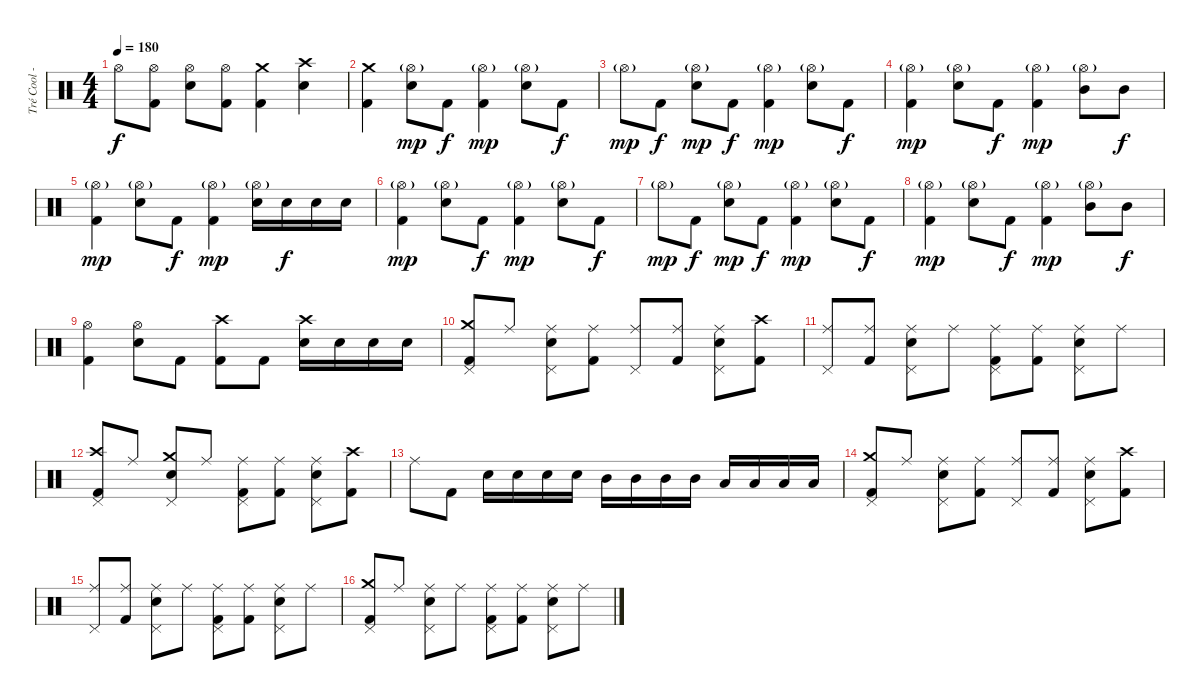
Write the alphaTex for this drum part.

\track ("Tré Cool - Drums" "Tré Cool -") {instrument percussion}
\staff {score}
\articulation defaults
\ts (4 4)
\tempo 180
\clef neutral
\ks c "Hi-Hat (open)".8{dy f}
("Hi-Hat (open)" "Kick (hit) 2").8 ("Hi-Hat (open)" "Electric Snare (hit)").8 ("Hi-Hat (open)" "Kick (hit) 2").8 ("Crash medium (hit)" "Kick (hit) 2").4 ("Crash high (hit)" "Electric Snare (hit)").4 |
("Crash medium (hit)" "Kick (hit) 2").4 ("Hi-Hat (open)"{g} "Electric Snare (hit)").8{dy mp} "Kick (hit) 2".8{dy f} ("Hi-Hat (open)"{g} "Kick (hit) 2").4{dy mp} ("Hi-Hat (open)"{g} "Electric Snare (hit)").8 "Kick (hit) 2".8{dy f} |
"Hi-Hat (open)"{g}.8{dy mp} "Kick (hit) 2".8{dy f} ("Hi-Hat (open)"{g} "Electric Snare (hit)").8{dy mp} "Kick (hit) 2".8{dy f} ("Hi-Hat (open)"{g} "Kick (hit) 2").4{dy mp} ("Hi-Hat (open)"{g} "Electric Snare (hit)").8 "Kick (hit) 2".8{dy f} |
("Hi-Hat (open)"{g} "Kick (hit) 2").4{dy mp} ("Hi-Hat (open)"{g} "Electric Snare (hit)").8 "Kick (hit) 2".8{dy f} ("Hi-Hat (open)"{g} "Kick (hit) 2").4{dy mp} ("Hi-Hat (open)"{g} "Mid Tom (hit)").8 "Mid Tom (hit)".8{dy f} |
("Hi-Hat (open)"{g} "Kick (hit) 2").4{dy mp} ("Hi-Hat (open)"{g} "Electric Snare (hit)").8 "Kick (hit) 2".8{dy f} ("Hi-Hat (open)"{g} "Kick (hit) 2").4{dy mp} ("Hi-Hat (open)"{g} "Electric Snare (hit)").16 "Electric Snare (hit)".16{dy f} "Electric Snare (hit)".16 "Electric Snare (hit)".16 |
("Hi-Hat (open)"{g} "Kick (hit) 2").4{dy mp} ("Hi-Hat (open)"{g} "Electric Snare (hit)").8 "Kick (hit) 2".8{dy f} ("Hi-Hat (open)"{g} "Kick (hit) 2").4{dy mp} ("Hi-Hat (open)"{g} "Electric Snare (hit)").8 "Kick (hit) 2".8{dy f} |
"Hi-Hat (open)"{g}.8{dy mp} "Kick (hit) 2".8{dy f} ("Hi-Hat (open)"{g} "Electric Snare (hit)").8{dy mp} "Kick (hit) 2".8{dy f} ("Hi-Hat (open)"{g} "Kick (hit) 2").4{dy mp} ("Hi-Hat (open)"{g} "Electric Snare (hit)").8 "Kick (hit) 2".8{dy f} |
("Hi-Hat (open)"{g} "Kick (hit) 2").4{dy mp} ("Hi-Hat (open)"{g} "Electric Snare (hit)").8 "Kick (hit) 2".8{dy f} ("Hi-Hat (open)"{g} "Kick (hit) 2").4{dy mp} ("Hi-Hat (open)"{g} "Mid Tom (hit)").8 "Mid Tom (hit)".8{dy f} |
("Hi-Hat (open)" "Kick (hit) 2").4 ("Hi-Hat (open)" "Electric Snare (hit)").8 "Kick (hit) 2".8 ("Crash high (hit)" "Kick (hit) 2").8 "Kick (hit) 2".8 ("Crash high (hit)" "Electric Snare (hit)").16 "Electric Snare (hit)".16 "Electric Snare (hit)".16 "Electric Snare (hit)".16 |
("Crash medium (hit)" "Pedal Hi-Hat (hit)" "Kick (hit) 2").8 "Ride (middle)".8 ("Ride (middle)" "Pedal Hi-Hat (hit)" "Electric Snare (hit)").8 ("Ride (middle)" "Kick (hit) 2").8 ("Ride (middle)" "Pedal Hi-Hat (hit)").8 ("Ride (middle)" "Kick (hit) 2").8 ("Ride (middle)" "Pedal Hi-Hat (hit)" "Electric Snare (hit)").8 ("Crash high (hit)" "Kick (hit) 2").8 |
("Ride (middle)" "Pedal Hi-Hat (hit)").8 ("Ride (middle)" "Kick (hit) 2").8 ("Ride (middle)" "Pedal Hi-Hat (hit)" "Electric Snare (hit)").8 "Ride (middle)".8 ("Ride (middle)" "Pedal Hi-Hat (hit)" "Kick (hit) 2").8 ("Ride (middle)" "Kick (hit) 2").8 ("Ride (middle)" "Pedal Hi-Hat (hit)" "Electric Snare (hit)").8 "Ride (middle)".8 |
("Crash high (hit)" "Pedal Hi-Hat (hit)" "Kick (hit) 2").8 "Ride (middle)".8 ("Crash medium (hit)" "Pedal Hi-Hat (hit)" "Electric Snare (hit)").8 "Ride (middle)".8 ("Ride (middle)" "Pedal Hi-Hat (hit)" "Kick (hit) 2").8 ("Ride (middle)" "Kick (hit) 2").8 ("Ride (middle)" "Pedal Hi-Hat (hit)" "Electric Snare (hit)").8 ("Crash high (hit)" "Kick (hit) 2").8 |
"Ride (middle)".8 "Kick (hit) 2".8 "Electric Snare (hit)".16 "Electric Snare (hit)".16 "Electric Snare (hit)".16 "Electric Snare (hit)".16 "Mid Tom (hit)".16 "Mid Tom (hit)".16 "Mid Tom (hit)".16 "Mid Tom (hit)".16 "Low Tom (hit)".16 "Low Tom (hit)".16 "Low Tom (hit)".16 "Low Tom (hit)".16 |
("Crash medium (hit)" "Pedal Hi-Hat (hit)" "Kick (hit) 2").8 "Ride (middle)".8 ("Ride (middle)" "Pedal Hi-Hat (hit)" "Electric Snare (hit)").8 ("Ride (middle)" "Kick (hit) 2").8 ("Ride (middle)" "Pedal Hi-Hat (hit)").8 ("Ride (middle)" "Kick (hit) 2").8 ("Ride (middle)" "Pedal Hi-Hat (hit)" "Electric Snare (hit)").8 ("Crash high (hit)" "Kick (hit) 2").8 |
("Ride (middle)" "Pedal Hi-Hat (hit)").8 ("Ride (middle)" "Kick (hit) 2").8 ("Ride (middle)" "Pedal Hi-Hat (hit)" "Electric Snare (hit)").8 "Ride (middle)".8 ("Ride (middle)" "Pedal Hi-Hat (hit)" "Kick (hit) 2").8 ("Ride (middle)" "Kick (hit) 2").8 ("Ride (middle)" "Pedal Hi-Hat (hit)" "Electric Snare (hit)").8 "Ride (middle)".8 |
("Crash medium (hit)" "Pedal Hi-Hat (hit)" "Kick (hit) 2").8 "Ride (middle)".8 ("Ride (middle)" "Pedal Hi-Hat (hit)" "Electric Snare (hit)").8 "Ride (middle)".8 ("Ride (middle)" "Pedal Hi-Hat (hit)" "Kick (hit) 2").8 ("Ride (middle)" "Kick (hit) 2").8 ("Ride (middle)" "Pedal Hi-Hat (hit)" "Electric Snare (hit)").8 "Ride (middle)".8
